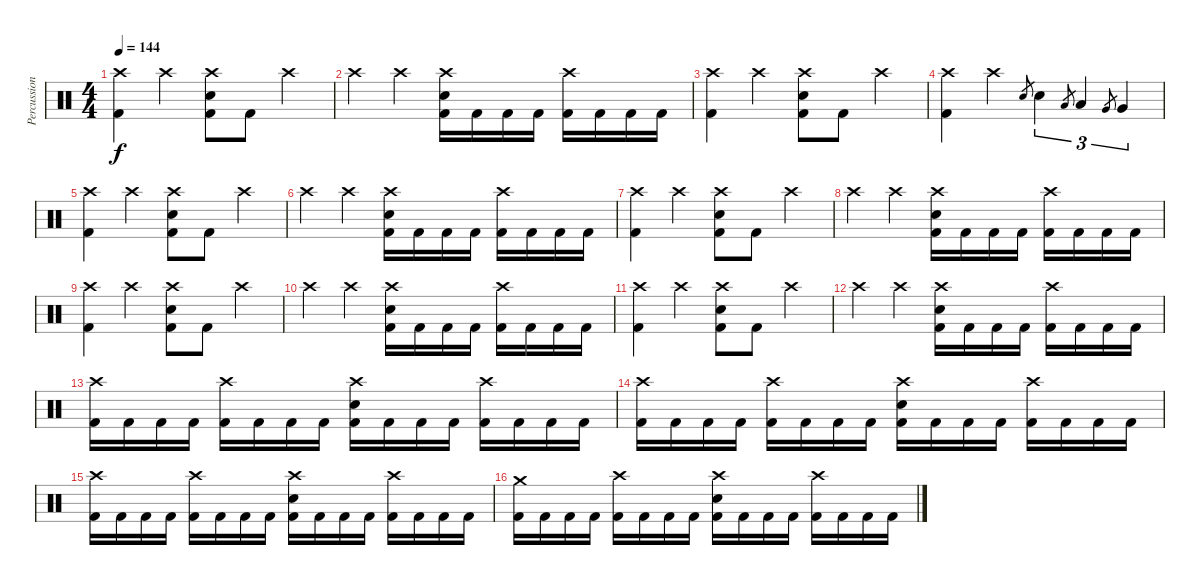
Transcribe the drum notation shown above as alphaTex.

\track ("Percussion" "Percussion") {instrument percussion}
\staff {score}
\articulation defaults
\ts (4 4)
\tempo 144
\clef neutral
\ks c
("Crash high (hit)" "Kick (hit) 2").4{dy f} "Crash high (hit)".4 ("Crash high (hit)" "Snare (hit) 2" "Kick (hit) 2").8 "Kick (hit) 2".8 "Crash high (hit)".4 |
"Crash high (hit)".4 "Crash high (hit)".4 ("Crash high (hit)" "Snare (hit) 2" "Kick (hit) 2").16 "Kick (hit) 2".16 "Kick (hit) 2".16 "Kick (hit) 2".16 ("Crash high (hit)" "Kick (hit) 2").16 "Kick (hit) 2".16 "Kick (hit) 2".16 "Kick (hit) 2".16 |
("Crash high (hit)" "Kick (hit) 2").4 "Crash high (hit)".4 ("Crash high (hit)" "Snare (hit) 2" "Kick (hit) 2").8 "Kick (hit) 2".8 "Crash high (hit)".4 |
("Crash high (hit)" "Kick (hit) 2").4 "Crash high (hit)".4 "Snare (hit) 2".8{gr} "Snare (hit) 2".4{tu (3 2)} "Low Tom (hit)".8{gr} "Low Tom (hit)".4{tu (3 2)} "Very Low Tom (hit)".8{gr} "Very Low Tom (hit)".4{tu (3 2)} |
("Crash high (hit)" "Kick (hit) 2").4 "Crash high (hit)".4 ("Crash high (hit)" "Snare (hit) 2" "Kick (hit) 2").8 "Kick (hit) 2".8 "Crash high (hit)".4 |
"Crash high (hit)".4 "Crash high (hit)".4 ("Crash high (hit)" "Snare (hit) 2" "Kick (hit) 2").16 "Kick (hit) 2".16 "Kick (hit) 2".16 "Kick (hit) 2".16 ("Crash high (hit)" "Kick (hit) 2").16 "Kick (hit) 2".16 "Kick (hit) 2".16 "Kick (hit) 2".16 |
("Crash high (hit)" "Kick (hit) 2").4 "Crash high (hit)".4 ("Crash high (hit)" "Snare (hit) 2" "Kick (hit) 2").8 "Kick (hit) 2".8 "Crash high (hit)".4 |
"Crash high (hit)".4 "Crash high (hit)".4 ("Crash high (hit)" "Snare (hit) 2" "Kick (hit) 2").16 "Kick (hit) 2".16 "Kick (hit) 2".16 "Kick (hit) 2".16 ("Crash high (hit)" "Kick (hit) 2").16 "Kick (hit) 2".16 "Kick (hit) 2".16 "Kick (hit) 2".16 |
("Crash high (hit)" "Kick (hit) 2").4 "Crash high (hit)".4 ("Crash high (hit)" "Snare (hit) 2" "Kick (hit) 2").8 "Kick (hit) 2".8 "Crash high (hit)".4 |
"Crash high (hit)".4 "Crash high (hit)".4 ("Crash high (hit)" "Snare (hit) 2" "Kick (hit) 2").16 "Kick (hit) 2".16 "Kick (hit) 2".16 "Kick (hit) 2".16 ("Crash high (hit)" "Kick (hit) 2").16 "Kick (hit) 2".16 "Kick (hit) 2".16 "Kick (hit) 2".16 |
("Crash high (hit)" "Kick (hit) 2").4 "Crash high (hit)".4 ("Crash high (hit)" "Snare (hit) 2" "Kick (hit) 2").8 "Kick (hit) 2".8 "Crash high (hit)".4 |
"Crash high (hit)".4 "Crash high (hit)".4 ("Crash high (hit)" "Snare (hit) 2" "Kick (hit) 2").16 "Kick (hit) 2".16 "Kick (hit) 2".16 "Kick (hit) 2".16 ("Crash high (hit)" "Kick (hit) 2").16 "Kick (hit) 2".16 "Kick (hit) 2".16 "Kick (hit) 2".16 |
("Crash high (hit)" "Kick (hit) 2").16 "Kick (hit) 2".16 "Kick (hit) 2".16 "Kick (hit) 2".16 ("Crash high (hit)" "Kick (hit) 2").16 "Kick (hit) 2".16 "Kick (hit) 2".16 "Kick (hit) 2".16 ("Crash high (hit)" "Snare (hit) 2" "Kick (hit) 2").16 "Kick (hit) 2".16 "Kick (hit) 2".16 "Kick (hit) 2".16 ("Crash high (hit)" "Kick (hit) 2").16 "Kick (hit) 2".16 "Kick (hit) 2".16 "Kick (hit) 2".16 |
("Crash high (hit)" "Kick (hit) 2").16 "Kick (hit) 2".16 "Kick (hit) 2".16 "Kick (hit) 2".16 ("Crash high (hit)" "Kick (hit) 2").16 "Kick (hit) 2".16 "Kick (hit) 2".16 "Kick (hit) 2".16 ("Crash high (hit)" "Snare (hit) 2" "Kick (hit) 2").16 "Kick (hit) 2".16 "Kick (hit) 2".16 "Kick (hit) 2".16 ("Crash high (hit)" "Kick (hit) 2").16 "Kick (hit) 2".16 "Kick (hit) 2".16 "Kick (hit) 2".16 |
("Crash high (hit)" "Kick (hit) 2").16 "Kick (hit) 2".16 "Kick (hit) 2".16 "Kick (hit) 2".16 ("Crash high (hit)" "Kick (hit) 2").16 "Kick (hit) 2".16 "Kick (hit) 2".16 "Kick (hit) 2".16 ("Crash high (hit)" "Snare (hit) 2" "Kick (hit) 2").16 "Kick (hit) 2".16 "Kick (hit) 2".16 "Kick (hit) 2".16 ("Crash high (hit)" "Kick (hit) 2").16 "Kick (hit) 2".16 "Kick (hit) 2".16 "Kick (hit) 2".16 |
("Crash medium (hit)" "Kick (hit) 2").16 "Kick (hit) 2".16 "Kick (hit) 2".16 "Kick (hit) 2".16 ("Crash high (hit)" "Kick (hit) 2").16 "Kick (hit) 2".16 "Kick (hit) 2".16 "Kick (hit) 2".16 ("Crash high (hit)" "Snare (hit) 2" "Kick (hit) 2").16 "Kick (hit) 2".16 "Kick (hit) 2".16 "Kick (hit) 2".16 ("Crash high (hit)" "Kick (hit) 2").16 "Kick (hit) 2".16 "Kick (hit) 2".16 "Kick (hit) 2".16
